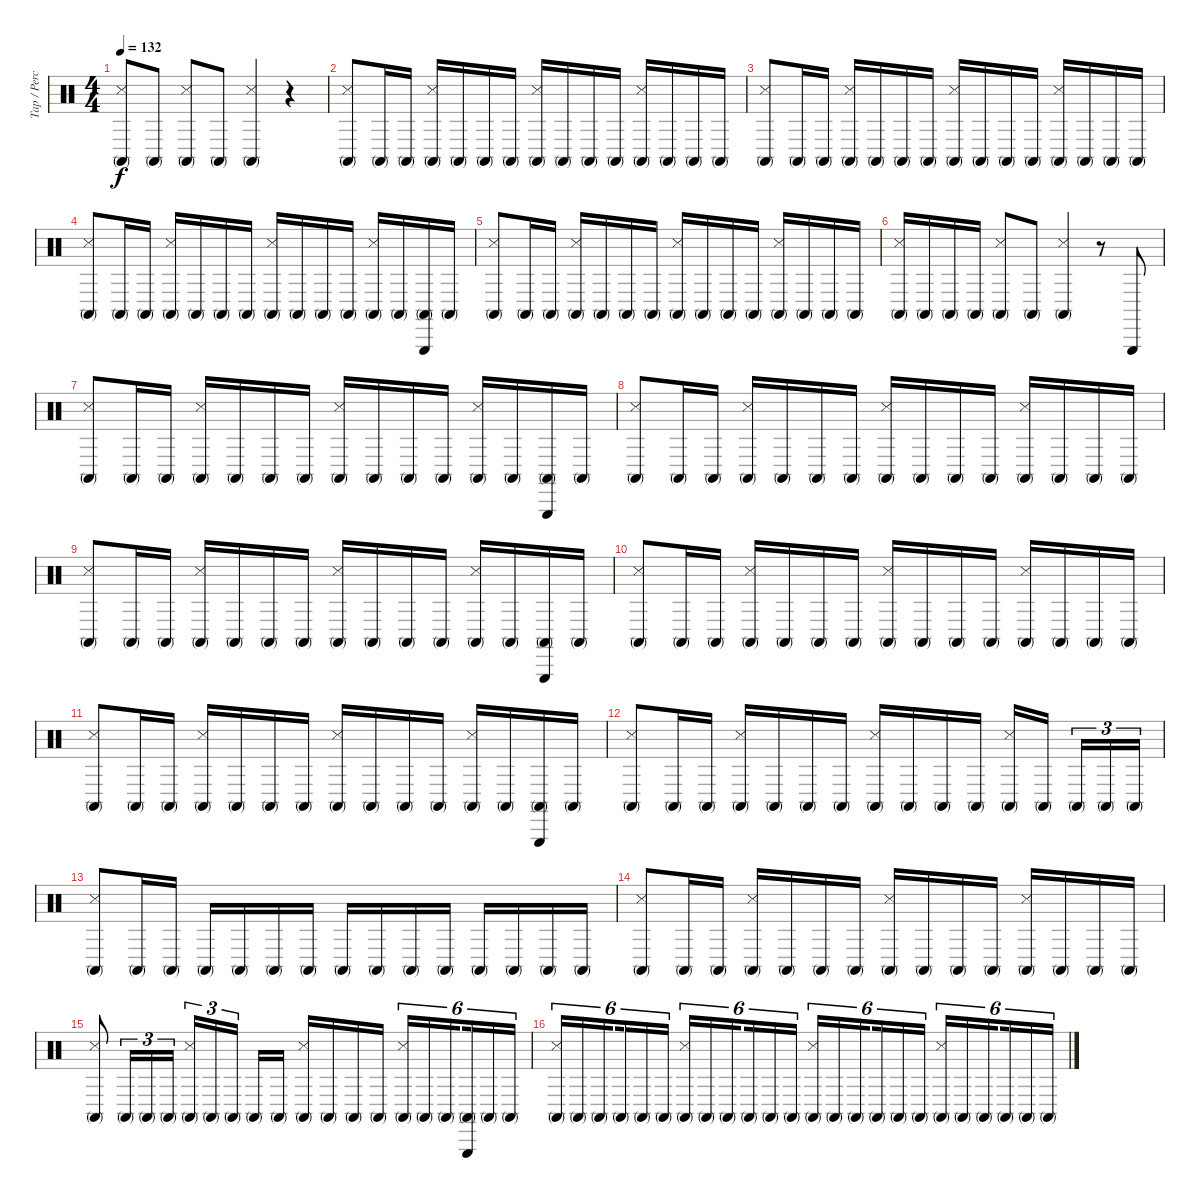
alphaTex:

\track ("Tap / Percussion" "Tap / Perc") {instrument percussion}
\staff {score}
\articulation defaults
\ts (4 4)
\tempo 132
\clef neutral
\ks c
("Conga high (mute)" "Snare (side stick) 3").8{dy f} "Conga high (mute)".8 ("Conga high (mute)" "Snare (side stick) 3").8 "Conga high (mute)".8 ("Conga high (mute)" "Snare (side stick) 3").4 r.4 |
("Conga high (mute)" "Snare (side stick) 3").8 "Conga high (mute)".16 "Conga high (mute)".16 ("Conga high (mute)" "Snare (side stick) 3").16 "Conga high (mute)".16 "Conga high (mute)".16 "Conga high (mute)".16 ("Conga high (mute)" "Snare (side stick) 3").16 "Conga high (mute)".16 "Conga high (mute)".16 "Conga high (mute)".16 ("Conga high (mute)" "Snare (side stick) 3").16 "Conga high (mute)".16 "Conga high (mute)".16 "Conga high (mute)".16 |
("Conga high (mute)" "Snare (side stick) 3").8 "Conga high (mute)".16 "Conga high (mute)".16 ("Conga high (mute)" "Snare (side stick) 3").16 "Conga high (mute)".16 "Conga high (mute)".16 "Conga high (mute)".16 ("Conga high (mute)" "Snare (side stick) 3").16 "Conga high (mute)".16 "Conga high (mute)".16 "Conga high (mute)".16 ("Conga high (mute)" "Snare (side stick) 3").16 "Conga high (mute)".16 "Conga high (mute)".16 "Conga high (mute)".16 |
("Conga high (mute)" "Snare (side stick) 3").8 "Conga high (mute)".16 "Conga high (mute)".16 ("Conga high (mute)" "Snare (side stick) 3").16 "Conga high (mute)".16 "Conga high (mute)".16 "Conga high (mute)".16 ("Conga high (mute)" "Snare (side stick) 3").16 "Conga high (mute)".16 "Conga high (mute)".16 "Conga high (mute)".16 ("Conga high (mute)" "Snare (side stick) 3").16 "Conga high (mute)".16 ("Conga high (mute)" "Triangle (hit)").16 "Conga high (mute)".16 |
("Conga high (mute)" "Snare (side stick) 3").8 "Conga high (mute)".16 "Conga high (mute)".16 ("Conga high (mute)" "Snare (side stick) 3").16 "Conga high (mute)".16 "Conga high (mute)".16 "Conga high (mute)".16 ("Conga high (mute)" "Snare (side stick) 3").16 "Conga high (mute)".16 "Conga high (mute)".16 "Conga high (mute)".16 ("Conga high (mute)" "Snare (side stick) 3").16 "Conga high (mute)".16 "Conga high (mute)".16 "Conga high (mute)".16 |
("Conga high (mute)" "Snare (side stick) 3").16 "Conga high (mute)".16 "Conga high (mute)".16 "Conga high (mute)".16 ("Conga high (mute)" "Snare (side stick) 3").8 "Conga high (mute)".8 ("Conga high (mute)" "Snare (side stick) 3").4 r.8 "Triangle (hit)".8 |
("Conga high (mute)" "Snare (side stick) 3").8 "Conga high (mute)".16 "Conga high (mute)".16 ("Conga high (mute)" "Snare (side stick) 3").16 "Conga high (mute)".16 "Conga high (mute)".16 "Conga high (mute)".16 ("Conga high (mute)" "Snare (side stick) 3").16 "Conga high (mute)".16 "Conga high (mute)".16 "Conga high (mute)".16 ("Conga high (mute)" "Snare (side stick) 3").16 "Conga high (mute)".16 ("Conga high (mute)" "Triangle (hit)").16 "Conga high (mute)".16 |
("Conga high (mute)" "Snare (side stick) 3").8 "Conga high (mute)".16 "Conga high (mute)".16 ("Conga high (mute)" "Snare (side stick) 3").16 "Conga high (mute)".16 "Conga high (mute)".16 "Conga high (mute)".16 ("Conga high (mute)" "Snare (side stick) 3").16 "Conga high (mute)".16 "Conga high (mute)".16 "Conga high (mute)".16 ("Conga high (mute)" "Snare (side stick) 3").16 "Conga high (mute)".16 "Conga high (mute)".16 "Conga high (mute)".16 |
("Conga high (mute)" "Snare (side stick) 3").8 "Conga high (mute)".16 "Conga high (mute)".16 ("Conga high (mute)" "Snare (side stick) 3").16 "Conga high (mute)".16 "Conga high (mute)".16 "Conga high (mute)".16 ("Conga high (mute)" "Snare (side stick) 3").16 "Conga high (mute)".16 "Conga high (mute)".16 "Conga high (mute)".16 ("Conga high (mute)" "Snare (side stick) 3").16 "Conga high (mute)".16 ("Conga high (mute)" "Triangle (hit)").16 "Conga high (mute)".16 |
("Conga high (mute)" "Snare (side stick) 3").8 "Conga high (mute)".16 "Conga high (mute)".16 ("Conga high (mute)" "Snare (side stick) 3").16 "Conga high (mute)".16 "Conga high (mute)".16 "Conga high (mute)".16 ("Conga high (mute)" "Snare (side stick) 3").16 "Conga high (mute)".16 "Conga high (mute)".16 "Conga high (mute)".16 ("Conga high (mute)" "Snare (side stick) 3").16 "Conga high (mute)".16 "Conga high (mute)".16 "Conga high (mute)".16 |
("Conga high (mute)" "Snare (side stick) 3").8 "Conga high (mute)".16 "Conga high (mute)".16 ("Conga high (mute)" "Snare (side stick) 3").16 "Conga high (mute)".16 "Conga high (mute)".16 "Conga high (mute)".16 ("Conga high (mute)" "Snare (side stick) 3").16 "Conga high (mute)".16 "Conga high (mute)".16 "Conga high (mute)".16 ("Conga high (mute)" "Snare (side stick) 3").16 "Conga high (mute)".16 ("Conga high (mute)" "Triangle (hit)").16 "Conga high (mute)".16 |
("Conga high (mute)" "Snare (side stick) 3").8 "Conga high (mute)".16 "Conga high (mute)".16 ("Conga high (mute)" "Snare (side stick) 3").16 "Conga high (mute)".16 "Conga high (mute)".16 "Conga high (mute)".16 ("Conga high (mute)" "Snare (side stick) 3").16 "Conga high (mute)".16 "Conga high (mute)".16 "Conga high (mute)".16 ("Conga high (mute)" "Snare (side stick) 3").16 "Conga high (mute)".16{beam splitsecondary} "Conga high (mute)".16{tu (3 2)} "Conga high (mute)".16{tu (3 2)} "Conga high (mute)".16{tu (3 2)} |
("Conga high (mute)" "Snare (side stick) 3").8 "Conga high (mute)".16 "Conga high (mute)".16 "Conga high (mute)".16 "Conga high (mute)".16 "Conga high (mute)".16 "Conga high (mute)".16 "Conga high (mute)".16 "Conga high (mute)".16 "Conga high (mute)".16 "Conga high (mute)".16 "Conga high (mute)".16 "Conga high (mute)".16 "Conga high (mute)".16 "Conga high (mute)".16 |
("Conga high (mute)" "Snare (side stick) 3").8 "Conga high (mute)".16 "Conga high (mute)".16 ("Conga high (mute)" "Snare (side stick) 3").16 "Conga high (mute)".16 "Conga high (mute)".16 "Conga high (mute)".16 ("Conga high (mute)" "Snare (side stick) 3").16 "Conga high (mute)".16 "Conga high (mute)".16 "Conga high (mute)".16 ("Conga high (mute)" "Snare (side stick) 3").16 "Conga high (mute)".16 "Conga high (mute)".16 "Conga high (mute)".16 |
("Conga high (mute)" "Snare (side stick) 3").8 "Conga high (mute)".16{tu (3 2)} "Conga high (mute)".16{tu (3 2)} "Conga high (mute)".16{tu (3 2)} ("Conga high (mute)" "Snare (side stick) 3").16{tu (3 2)} "Conga high (mute)".16{tu (3 2)} "Conga high (mute)".16{tu (3 2) beam splitsecondary} "Conga high (mute)".16 "Conga high (mute)".16 ("Conga high (mute)" "Snare (side stick) 3").16 "Conga high (mute)".16 "Conga high (mute)".16 "Conga high (mute)".16 ("Conga high (mute)" "Snare (side stick) 3").16{tu (6 4)} "Conga high (mute)".16{tu (6 4)} "Conga high (mute)".16{tu (6 4) beam splitsecondary} ("Conga high (mute)" "Triangle (hit)").16{tu (6 4)} "Conga high (mute)".16{tu (6 4)} "Conga high (mute)".16{tu (6 4)} |
("Conga high (mute)" "Snare (side stick) 3").16{tu (6 4)} "Conga high (mute)".16{tu (6 4)} "Conga high (mute)".16{tu (6 4) beam splitsecondary} "Conga high (mute)".16{tu (6 4)} "Conga high (mute)".16{tu (6 4)} "Conga high (mute)".16{tu (6 4)} ("Conga high (mute)" "Snare (side stick) 3").16{tu (6 4)} "Conga high (mute)".16{tu (6 4)} "Conga high (mute)".16{tu (6 4) beam splitsecondary} "Conga high (mute)".16{tu (6 4)} "Conga high (mute)".16{tu (6 4)} "Conga high (mute)".16{tu (6 4)} ("Conga high (mute)" "Snare (side stick) 3").16{tu (6 4)} "Conga high (mute)".16{tu (6 4)} "Conga high (mute)".16{tu (6 4) beam splitsecondary} "Conga high (mute)".16{tu (6 4)} "Conga high (mute)".16{tu (6 4)} "Conga high (mute)".16{tu (6 4)} ("Conga high (mute)" "Snare (side stick) 3").16{tu (6 4)} "Conga high (mute)".16{tu (6 4)} "Conga high (mute)".16{tu (6 4) beam splitsecondary} "Conga high (mute)".16{tu (6 4)} "Conga high (mute)".16{tu (6 4)} "Conga high (mute)".16{tu (6 4)}
